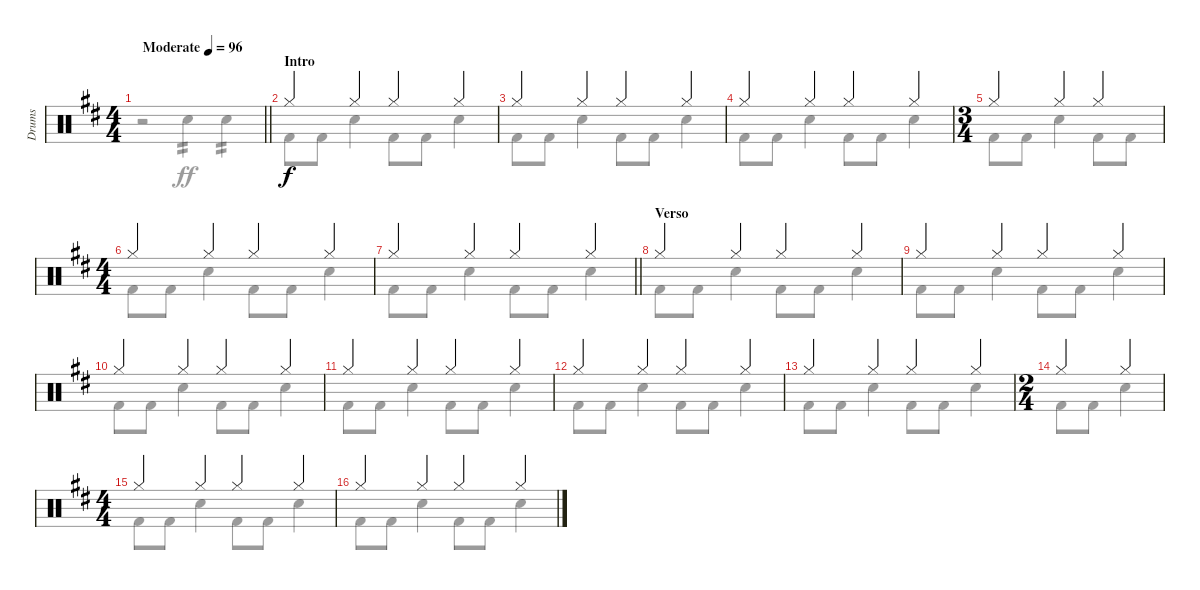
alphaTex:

\track ("Drums" "Drums") {instrument percussion}
\staff {score}
\articulation defaults
\voice
\ts (4 4)
\tempo (96 "Moderate")
\clef neutral
\barLineRight lightlight
\ks d
|
\section ("" "Intro")
"Hi-Hat (closed)".4 "Hi-Hat (closed)".4 "Hi-Hat (closed)".4 "Hi-Hat (closed)".4 |
"Hi-Hat (closed)".4 "Hi-Hat (closed)".4 "Hi-Hat (closed)".4 "Hi-Hat (closed)".4 |
"Hi-Hat (closed)".4 "Hi-Hat (closed)".4 "Hi-Hat (closed)".4 "Hi-Hat (closed)".4 |
\ts (3 4)
"Hi-Hat (closed)".4 "Hi-Hat (closed)".4 "Hi-Hat (closed)".4 |
\ts (4 4)
"Hi-Hat (closed)".4 "Hi-Hat (closed)".4 "Hi-Hat (closed)".4 "Hi-Hat (closed)".4 |
\barLineRight lightlight "Hi-Hat (closed)".4 "Hi-Hat (closed)".4 "Hi-Hat (closed)".4 "Hi-Hat (closed)".4
|
\section ("" "Verso")
"Hi-Hat (closed)".4 "Hi-Hat (closed)".4 "Hi-Hat (closed)".4 "Hi-Hat (closed)".4 |
"Hi-Hat (closed)".4 "Hi-Hat (closed)".4 "Hi-Hat (closed)".4 "Hi-Hat (closed)".4 |
"Hi-Hat (closed)".4 "Hi-Hat (closed)".4 "Hi-Hat (closed)".4 "Hi-Hat (closed)".4 |
"Hi-Hat (closed)".4 "Hi-Hat (closed)".4 "Hi-Hat (closed)".4 "Hi-Hat (closed)".4 |
"Hi-Hat (closed)".4 "Hi-Hat (closed)".4 "Hi-Hat (closed)".4 "Hi-Hat (closed)".4 |
"Hi-Hat (closed)".4 "Hi-Hat (closed)".4 "Hi-Hat (closed)".4 "Hi-Hat (closed)".4 |
\ts (2 4)
"Hi-Hat (closed)".4 "Hi-Hat (closed)".4 |
\ts (4 4)
"Hi-Hat (closed)".4 "Hi-Hat (closed)".4 "Hi-Hat (closed)".4 "Hi-Hat (closed)".4 |
"Hi-Hat (closed)".4 "Hi-Hat (closed)".4 "Hi-Hat (closed)".4 "Hi-Hat (closed)".4
\voice
\clef neutral
\ottava regular
\simile none
\barLineRight lightlight
\ks d
r.2{dy ff} "Electric Snare (hit)".4{tp 2} "Electric Snare (hit)".4{tp 2} |
"Kick (hit) 2".8 "Kick (hit) 2".8 "Electric Snare (hit)".4 "Kick (hit) 2".8 "Kick (hit) 2".8 "Electric Snare (hit)".4 |
"Kick (hit) 2".8 "Kick (hit) 2".8 "Electric Snare (hit)".4 "Kick (hit) 2".8 "Kick (hit) 2".8 "Electric Snare (hit)".4 |
"Kick (hit) 2".8 "Kick (hit) 2".8 "Electric Snare (hit)".4 "Kick (hit) 2".8 "Kick (hit) 2".8 "Electric Snare (hit)".4 |
"Kick (hit) 2".8 "Kick (hit) 2".8 "Electric Snare (hit)".4 "Kick (hit) 2".8 "Kick (hit) 2".8 |
"Kick (hit) 2".8 "Kick (hit) 2".8 "Electric Snare (hit)".4 "Kick (hit) 2".8 "Kick (hit) 2".8 "Electric Snare (hit)".4 |
\barLineRight lightlight "Kick (hit) 2".8 "Kick (hit) 2".8 "Electric Snare (hit)".4 "Kick (hit) 2".8 "Kick (hit) 2".8 "Electric Snare (hit)".4
|
"Kick (hit) 2".8 "Kick (hit) 2".8 "Electric Snare (hit)".4 "Kick (hit) 2".8 "Kick (hit) 2".8 "Electric Snare (hit)".4 |
"Kick (hit) 2".8 "Kick (hit) 2".8 "Electric Snare (hit)".4 "Kick (hit) 2".8 "Kick (hit) 2".8 "Electric Snare (hit)".4 |
"Kick (hit) 2".8 "Kick (hit) 2".8 "Electric Snare (hit)".4 "Kick (hit) 2".8 "Kick (hit) 2".8 "Electric Snare (hit)".4 |
"Kick (hit) 2".8 "Kick (hit) 2".8 "Electric Snare (hit)".4 "Kick (hit) 2".8 "Kick (hit) 2".8 "Electric Snare (hit)".4 |
"Kick (hit) 2".8 "Kick (hit) 2".8 "Electric Snare (hit)".4 "Kick (hit) 2".8 "Kick (hit) 2".8 "Electric Snare (hit)".4 |
"Kick (hit) 2".8 "Kick (hit) 2".8 "Electric Snare (hit)".4 "Kick (hit) 2".8 "Kick (hit) 2".8 "Electric Snare (hit)".4 |
"Kick (hit) 2".8 "Kick (hit) 2".8 "Electric Snare (hit)".4 |
"Kick (hit) 2".8 "Kick (hit) 2".8 "Electric Snare (hit)".4 "Kick (hit) 2".8 "Kick (hit) 2".8 "Electric Snare (hit)".4 |
"Kick (hit) 2".8 "Kick (hit) 2".8 "Electric Snare (hit)".4 "Kick (hit) 2".8 "Kick (hit) 2".8 "Electric Snare (hit)".4
